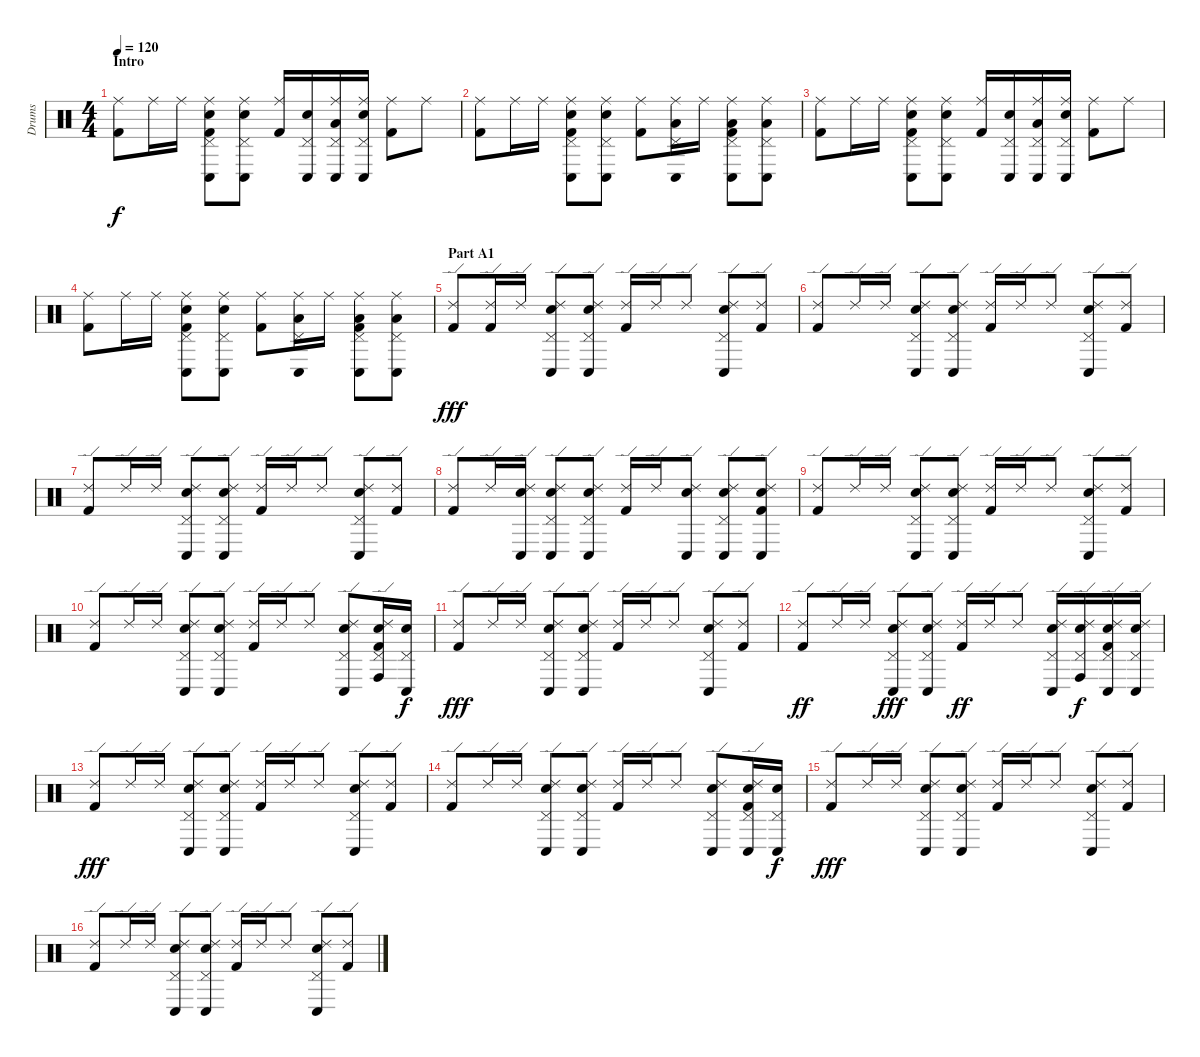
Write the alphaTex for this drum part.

\track ("Drums" "Drums") {instrument percussion}
\staff {score}
\articulation defaults
\ts (4 4)
\section ("" "Intro")
\tempo 120
\clef neutral
\ks c
("Ride (middle)" "Kick (hit) 2").8{dy f} "Ride (middle)".16 "Ride (middle)".16 ("Ride (middle)" "Pedal Hi-Hat (hit)" "Conga low (hit)" "Electric Snare (hit)" "Kick (hit) 2").8 ("Ride (middle)" "Pedal Hi-Hat (hit)" "Conga low (hit)" "Electric Snare (hit)").8 ("Ride (middle)" "Kick (hit) 2").16 ("Pedal Hi-Hat (hit)" "Conga low (hit)" "Electric Snare (hit)").16 ("Ride (middle)" "Pedal Hi-Hat (hit)" "Conga low (hit)" "Low Floor Tom (hit)").16 ("Ride (middle)" "Pedal Hi-Hat (hit)" "Conga low (hit)" "Electric Snare (hit)").16 ("Ride (middle)" "Kick (hit) 2").8 "Ride (middle)".8 |
("Ride (middle)" "Kick (hit) 2").8 "Ride (middle)".16 "Ride (middle)".16 ("Ride (middle)" "Pedal Hi-Hat (hit)" "Conga low (hit)" "Electric Snare (hit)" "Kick (hit) 2").8 ("Ride (middle)" "Pedal Hi-Hat (hit)" "Conga low (hit)" "Electric Snare (hit)").8 ("Ride (middle)" "Kick (hit) 2").8 ("Ride (middle)" "Pedal Hi-Hat (hit)" "Conga low (hit)" "Low Floor Tom (hit)").16 "Ride (middle)".16 ("Ride (middle)" "Pedal Hi-Hat (hit)" "Conga low (hit)" "Low Floor Tom (hit)" "Kick (hit) 2").8 ("Ride (middle)" "Pedal Hi-Hat (hit)" "Conga low (hit)" "Low Floor Tom (hit)").8 |
("Ride (middle)" "Kick (hit) 2").8 "Ride (middle)".16 "Ride (middle)".16 ("Ride (middle)" "Pedal Hi-Hat (hit)" "Conga low (hit)" "Electric Snare (hit)" "Kick (hit) 2").8 ("Ride (middle)" "Pedal Hi-Hat (hit)" "Conga low (hit)" "Electric Snare (hit)").8 ("Ride (middle)" "Kick (hit) 2").16 ("Pedal Hi-Hat (hit)" "Conga low (hit)" "Electric Snare (hit)").16 ("Ride (middle)" "Pedal Hi-Hat (hit)" "Conga low (hit)" "Low Floor Tom (hit)").16 ("Ride (middle)" "Pedal Hi-Hat (hit)" "Conga low (hit)" "Electric Snare (hit)").16 ("Ride (middle)" "Kick (hit) 2").8 "Ride (middle)".8 |
("Ride (middle)" "Kick (hit) 2").8 "Ride (middle)".16 "Ride (middle)".16 ("Ride (middle)" "Pedal Hi-Hat (hit)" "Conga low (hit)" "Electric Snare (hit)" "Kick (hit) 2").8 ("Ride (middle)" "Pedal Hi-Hat (hit)" "Conga low (hit)" "Electric Snare (hit)").8 ("Ride (middle)" "Kick (hit) 2").8 ("Ride (middle)" "Pedal Hi-Hat (hit)" "Conga low (hit)" "Low Floor Tom (hit)").16 "Ride (middle)".16 ("Ride (middle)" "Pedal Hi-Hat (hit)" "Conga low (hit)" "Low Floor Tom (hit)" "Kick (hit) 2").8 ("Ride (middle)" "Pedal Hi-Hat (hit)" "Conga low (hit)" "Low Floor Tom (hit)").8 |
\section ("" "Part A1")
("Ride (edge) 2" "Kick (hit) 2").8{dy fff} ("Ride (edge) 2" "Kick (hit) 2").16 "Ride (edge) 2".16 ("Ride (edge) 2" "Pedal Hi-Hat (hit)" "Conga low (hit)" "Electric Snare (hit)").8 ("Ride (edge) 2" "Pedal Hi-Hat (hit)" "Conga low (hit)" "Electric Snare (hit)").8 ("Ride (edge) 2" "Kick (hit) 2").16 "Ride (edge) 2".16 "Ride (edge) 2".8 ("Ride (edge) 2" "Pedal Hi-Hat (hit)" "Conga low (hit)" "Electric Snare (hit)").8 ("Ride (edge) 2" "Kick (hit) 2").8 |
("Ride (edge) 2" "Kick (hit) 2").8 "Ride (edge) 2".16 "Ride (edge) 2".16 ("Ride (edge) 2" "Pedal Hi-Hat (hit)" "Conga low (hit)" "Electric Snare (hit)").8 ("Ride (edge) 2" "Pedal Hi-Hat (hit)" "Conga low (hit)" "Electric Snare (hit)").8 ("Ride (edge) 2" "Kick (hit) 2").16 "Ride (edge) 2".16 "Ride (edge) 2".8 ("Ride (edge) 2" "Pedal Hi-Hat (hit)" "Conga low (hit)" "Electric Snare (hit)").8 ("Ride (edge) 2" "Kick (hit) 2").8 |
("Ride (edge) 2" "Kick (hit) 2").8 "Ride (edge) 2".16 "Ride (edge) 2".16 ("Ride (edge) 2" "Pedal Hi-Hat (hit)" "Conga low (hit)" "Electric Snare (hit)").8 ("Ride (edge) 2" "Pedal Hi-Hat (hit)" "Conga low (hit)" "Electric Snare (hit)").8 ("Ride (edge) 2" "Kick (hit) 2").16 "Ride (edge) 2".16 "Ride (edge) 2".8 ("Ride (edge) 2" "Pedal Hi-Hat (hit)" "Conga low (hit)" "Electric Snare (hit)").8 ("Ride (edge) 2" "Kick (hit) 2").8 |
("Ride (edge) 2" "Kick (hit) 2").8 "Ride (edge) 2".16 ("Ride (edge) 2" "Conga low (hit)" "Electric Snare (hit)").16 ("Ride (edge) 2" "Pedal Hi-Hat (hit)" "Conga low (hit)" "Electric Snare (hit)").8 ("Ride (edge) 2" "Pedal Hi-Hat (hit)" "Conga low (hit)" "Electric Snare (hit)").8 ("Ride (edge) 2" "Kick (hit) 2").16 "Ride (edge) 2".16 ("Ride (edge) 2" "Conga low (hit)" "Electric Snare (hit)").8 ("Ride (edge) 2" "Pedal Hi-Hat (hit)" "Conga low (hit)" "Electric Snare (hit)").8 ("Ride (edge) 2" "Conga low (hit)" "Electric Snare (hit)" "Kick (hit) 2").8 |
("Ride (edge) 2" "Kick (hit) 2").8 "Ride (edge) 2".16 "Ride (edge) 2".16 ("Ride (edge) 2" "Pedal Hi-Hat (hit)" "Conga low (hit)" "Electric Snare (hit)").8 ("Ride (edge) 2" "Pedal Hi-Hat (hit)" "Conga low (hit)" "Electric Snare (hit)").8 ("Ride (edge) 2" "Kick (hit) 2").16 "Ride (edge) 2".16 "Ride (edge) 2".8 ("Ride (edge) 2" "Pedal Hi-Hat (hit)" "Conga low (hit)" "Electric Snare (hit)").8 ("Ride (edge) 2" "Kick (hit) 2").8 |
("Ride (edge) 2" "Kick (hit) 2").8 "Ride (edge) 2".16 "Ride (edge) 2".16 ("Ride (edge) 2" "Pedal Hi-Hat (hit)" "Conga low (hit)" "Electric Snare (hit)").8 ("Ride (edge) 2" "Pedal Hi-Hat (hit)" "Conga low (hit)" "Electric Snare (hit)").8 ("Ride (edge) 2" "Kick (hit) 2").16 "Ride (edge) 2".16 "Ride (edge) 2".8 ("Ride (edge) 2" "Pedal Hi-Hat (hit)" "Conga low (hit)" "Electric Snare (hit)").8 ("Ride (edge) 2" "Pedal Hi-Hat (hit)" "Conga high (hit)" "Electric Snare (hit)" "Kick (hit) 2").16 ("Pedal Hi-Hat (hit)" "Conga low (hit)" "Electric Snare (hit)").16{dy f} |
("Ride (edge) 2" "Kick (hit) 2").8{dy fff} "Ride (edge) 2".16 "Ride (edge) 2".16 ("Ride (edge) 2" "Pedal Hi-Hat (hit)" "Conga low (hit)" "Electric Snare (hit)").8 ("Ride (edge) 2" "Pedal Hi-Hat (hit)" "Conga low (hit)" "Electric Snare (hit)").8 ("Ride (edge) 2" "Kick (hit) 2").16 "Ride (edge) 2".16 "Ride (edge) 2".8 ("Ride (edge) 2" "Pedal Hi-Hat (hit)" "Conga low (hit)" "Electric Snare (hit)").8 ("Ride (edge) 2" "Kick (hit) 2").8 |
("Ride (edge) 2" "Kick (hit) 2").8{dy ff} "Ride (edge) 2".16 "Ride (edge) 2".16 ("Ride (edge) 2" "Pedal Hi-Hat (hit)" "Conga low (hit)" "Electric Snare (hit)").8{dy fff} ("Ride (edge) 2" "Pedal Hi-Hat (hit)" "Conga low (hit)" "Electric Snare (hit)").8 ("Ride (edge) 2" "Kick (hit) 2").16{dy ff} "Ride (edge) 2".16 "Ride (edge) 2".8 ("Ride (edge) 2" "Pedal Hi-Hat (hit)" "Conga low (hit)" "Electric Snare (hit)").16 ("Ride (edge) 2" "Pedal Hi-Hat (hit)" "Conga high (hit)" "Electric Snare (hit)").16{dy f} ("Ride (edge) 2" "Pedal Hi-Hat (hit)" "Conga low (hit)" "Electric Snare (hit)" "Kick (hit) 2").16 ("Ride (edge) 2" "Pedal Hi-Hat (hit)" "Conga low (hit)" "Electric Snare (hit)").16 |
("Ride (edge) 2" "Kick (hit) 2").8{dy fff} "Ride (edge) 2".16 "Ride (edge) 2".16 ("Ride (edge) 2" "Pedal Hi-Hat (hit)" "Conga low (hit)" "Electric Snare (hit)").8 ("Ride (edge) 2" "Pedal Hi-Hat (hit)" "Conga low (hit)" "Electric Snare (hit)").8 ("Ride (edge) 2" "Kick (hit) 2").16 "Ride (edge) 2".16 "Ride (edge) 2".8 ("Ride (edge) 2" "Pedal Hi-Hat (hit)" "Conga low (hit)" "Electric Snare (hit)").8 ("Ride (edge) 2" "Kick (hit) 2").8 |
("Ride (edge) 2" "Kick (hit) 2").8 "Ride (edge) 2".16 "Ride (edge) 2".16 ("Ride (edge) 2" "Pedal Hi-Hat (hit)" "Conga low (hit)" "Electric Snare (hit)").8 ("Ride (edge) 2" "Pedal Hi-Hat (hit)" "Conga low (hit)" "Electric Snare (hit)").8 ("Ride (edge) 2" "Kick (hit) 2").16 "Ride (edge) 2".16 "Ride (edge) 2".8 ("Ride (edge) 2" "Pedal Hi-Hat (hit)" "Conga low (hit)" "Electric Snare (hit)").8 ("Ride (edge) 2" "Pedal Hi-Hat (hit)" "Conga low (hit)" "Electric Snare (hit)" "Kick (hit) 2").16 ("Pedal Hi-Hat (hit)" "Conga low (hit)" "Electric Snare (hit)").16{dy f} |
("Ride (edge) 2" "Kick (hit) 2").8{dy fff} "Ride (edge) 2".16 "Ride (edge) 2".16 ("Ride (edge) 2" "Pedal Hi-Hat (hit)" "Conga low (hit)" "Electric Snare (hit)").8 ("Ride (edge) 2" "Pedal Hi-Hat (hit)" "Conga low (hit)" "Electric Snare (hit)").8 ("Ride (edge) 2" "Kick (hit) 2").16 "Ride (edge) 2".16 "Ride (edge) 2".8 ("Ride (edge) 2" "Pedal Hi-Hat (hit)" "Conga low (hit)" "Electric Snare (hit)").8 ("Ride (edge) 2" "Kick (hit) 2").8 |
("Ride (edge) 2" "Kick (hit) 2").8 "Ride (edge) 2".16 "Ride (edge) 2".16 ("Ride (edge) 2" "Pedal Hi-Hat (hit)" "Conga low (hit)" "Electric Snare (hit)").8 ("Ride (edge) 2" "Pedal Hi-Hat (hit)" "Conga low (hit)" "Electric Snare (hit)").8 ("Ride (edge) 2" "Kick (hit) 2").16 "Ride (edge) 2".16 "Ride (edge) 2".8 ("Ride (edge) 2" "Pedal Hi-Hat (hit)" "Conga low (hit)" "Electric Snare (hit)").8 ("Ride (edge) 2" "Kick (hit) 2").8
